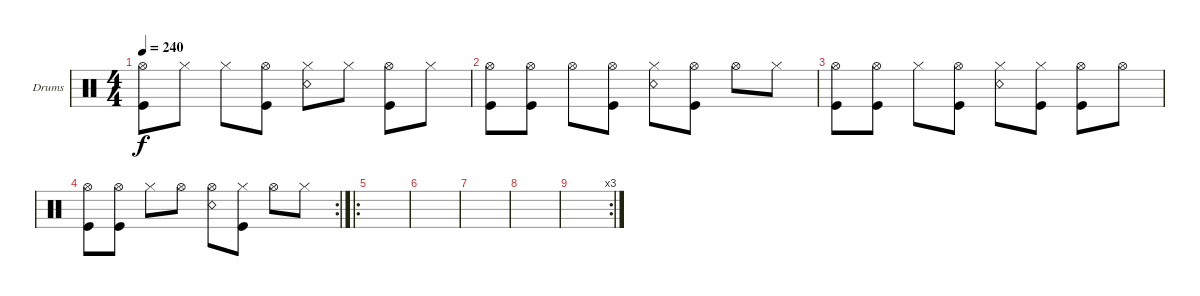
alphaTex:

\bracketExtendMode groupsimilarinstruments
\firstSystemTrackNameOrientation horizontal
\otherSystemsTrackNameOrientation horizontal
\track ("Drumkit" "Drums") {instrument percussion}
\staff {score}
\articulation defaults
\ts (4 4)
\tempo 240
\clef neutral
\ks c
("Hi-Hat (open)" "Kick (hit)").8{dy f} "Hi-Hat (closed)".8 "Hi-Hat (closed)".8 ("Hi-Hat (open)" "Kick (hit)").8 ("Hi-Hat (closed)" "Snare (rim shot)").8 "Hi-Hat (closed)".8 ("Hi-Hat (open)" "Kick (hit)").8 "Hi-Hat (closed)".8 |
("Hi-Hat (open)" "Kick (hit)").8 ("Hi-Hat (open)" "Kick (hit)").8 "Hi-Hat (open)".8 ("Hi-Hat (open)" "Kick (hit)").8 ("Snare (rim shot)" "Hi-Hat (closed)").8 ("Hi-Hat (open)" "Kick (hit)").8 "Hi-Hat (open)".8 "Hi-Hat (closed)".8 |
("Hi-Hat (open)" "Kick (hit)").8 ("Hi-Hat (open)" "Kick (hit)").8 "Hi-Hat (closed)".8 ("Hi-Hat (open)" "Kick (hit)").8 ("Snare (rim shot)" "Hi-Hat (closed)").8 ("Hi-Hat (closed)" "Kick (hit)").8 ("Hi-Hat (open)" "Kick (hit)").8 "Hi-Hat (open)".8 |
\rc 2
("Hi-Hat (open)" "Kick (hit)").8 ("Hi-Hat (open)" "Kick (hit)").8 "Hi-Hat (closed)".8 "Hi-Hat (open)".8 ("Snare (rim shot)" "Hi-Hat (open)").8 ("Hi-Hat (closed)" "Kick (hit)").8 "Hi-Hat (open)".8 "Hi-Hat (closed)".8 |
\ro
|
|
|
|
\rc 3
